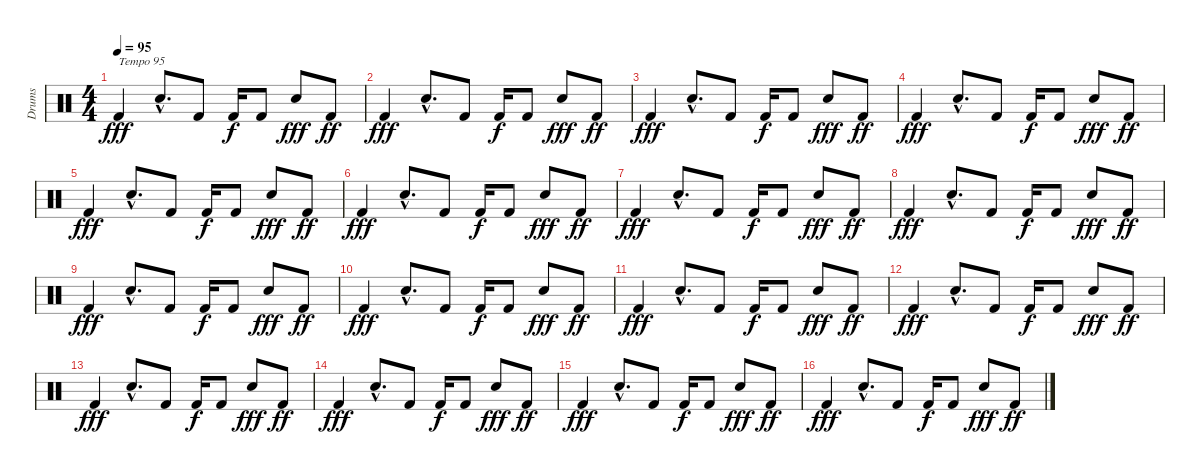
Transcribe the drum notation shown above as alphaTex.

\track ("Drums" "Drums") {instrument percussion}
\staff {score}
\articulation defaults
\ts (4 4)
\tempo 95
\clef neutral
\ks c "Kick (hit) 2".4{txt "Tempo 95" dy fff} "Electric Snare (hit)"{hac}.8{d} "Kick (hit) 2".8 "Kick (hit) 2".16{dy f} "Kick (hit) 2".8 "Electric Snare (hit)".8{dy fff} "Kick (hit) 2".8{dy ff}
|
"Kick (hit) 2".4{dy fff} "Electric Snare (hit)"{hac}.8{d} "Kick (hit) 2".8 "Kick (hit) 2".16{dy f} "Kick (hit) 2".8 "Electric Snare (hit)".8{dy fff} "Kick (hit) 2".8{dy ff} |
"Kick (hit) 2".4{dy fff} "Electric Snare (hit)"{hac}.8{d} "Kick (hit) 2".8 "Kick (hit) 2".16{dy f} "Kick (hit) 2".8 "Electric Snare (hit)".8{dy fff} "Kick (hit) 2".8{dy ff} |
"Kick (hit) 2".4{dy fff} "Electric Snare (hit)"{hac}.8{d} "Kick (hit) 2".8 "Kick (hit) 2".16{dy f} "Kick (hit) 2".8 "Electric Snare (hit)".8{dy fff} "Kick (hit) 2".8{dy ff} |
"Kick (hit) 2".4{dy fff} "Electric Snare (hit)"{hac}.8{d} "Kick (hit) 2".8 "Kick (hit) 2".16{dy f} "Kick (hit) 2".8 "Electric Snare (hit)".8{dy fff} "Kick (hit) 2".8{dy ff} |
"Kick (hit) 2".4{dy fff} "Electric Snare (hit)"{hac}.8{d} "Kick (hit) 2".8 "Kick (hit) 2".16{dy f} "Kick (hit) 2".8 "Electric Snare (hit)".8{dy fff} "Kick (hit) 2".8{dy ff} |
"Kick (hit) 2".4{dy fff} "Electric Snare (hit)"{hac}.8{d} "Kick (hit) 2".8 "Kick (hit) 2".16{dy f} "Kick (hit) 2".8 "Electric Snare (hit)".8{dy fff} "Kick (hit) 2".8{dy ff} |
"Kick (hit) 2".4{dy fff} "Electric Snare (hit)"{hac}.8{d} "Kick (hit) 2".8 "Kick (hit) 2".16{dy f} "Kick (hit) 2".8 "Electric Snare (hit)".8{dy fff} "Kick (hit) 2".8{dy ff} |
"Kick (hit) 2".4{dy fff} "Electric Snare (hit)"{hac}.8{d} "Kick (hit) 2".8 "Kick (hit) 2".16{dy f} "Kick (hit) 2".8 "Electric Snare (hit)".8{dy fff} "Kick (hit) 2".8{dy ff} |
"Kick (hit) 2".4{dy fff} "Electric Snare (hit)"{hac}.8{d} "Kick (hit) 2".8 "Kick (hit) 2".16{dy f} "Kick (hit) 2".8 "Electric Snare (hit)".8{dy fff} "Kick (hit) 2".8{dy ff} |
"Kick (hit) 2".4{dy fff} "Electric Snare (hit)"{hac}.8{d} "Kick (hit) 2".8 "Kick (hit) 2".16{dy f} "Kick (hit) 2".8 "Electric Snare (hit)".8{dy fff} "Kick (hit) 2".8{dy ff} |
"Kick (hit) 2".4{dy fff} "Electric Snare (hit)"{hac}.8{d} "Kick (hit) 2".8 "Kick (hit) 2".16{dy f} "Kick (hit) 2".8 "Electric Snare (hit)".8{dy fff} "Kick (hit) 2".8{dy ff} |
"Kick (hit) 2".4{dy fff} "Electric Snare (hit)"{hac}.8{d} "Kick (hit) 2".8 "Kick (hit) 2".16{dy f} "Kick (hit) 2".8 "Electric Snare (hit)".8{dy fff} "Kick (hit) 2".8{dy ff} |
"Kick (hit) 2".4{dy fff} "Electric Snare (hit)"{hac}.8{d} "Kick (hit) 2".8 "Kick (hit) 2".16{dy f} "Kick (hit) 2".8 "Electric Snare (hit)".8{dy fff} "Kick (hit) 2".8{dy ff} |
"Kick (hit) 2".4{dy fff} "Electric Snare (hit)"{hac}.8{d} "Kick (hit) 2".8 "Kick (hit) 2".16{dy f} "Kick (hit) 2".8 "Electric Snare (hit)".8{dy fff} "Kick (hit) 2".8{dy ff} |
"Kick (hit) 2".4{dy fff} "Electric Snare (hit)"{hac}.8{d} "Kick (hit) 2".8 "Kick (hit) 2".16{dy f} "Kick (hit) 2".8 "Electric Snare (hit)".8{dy fff} "Kick (hit) 2".8{dy ff}
